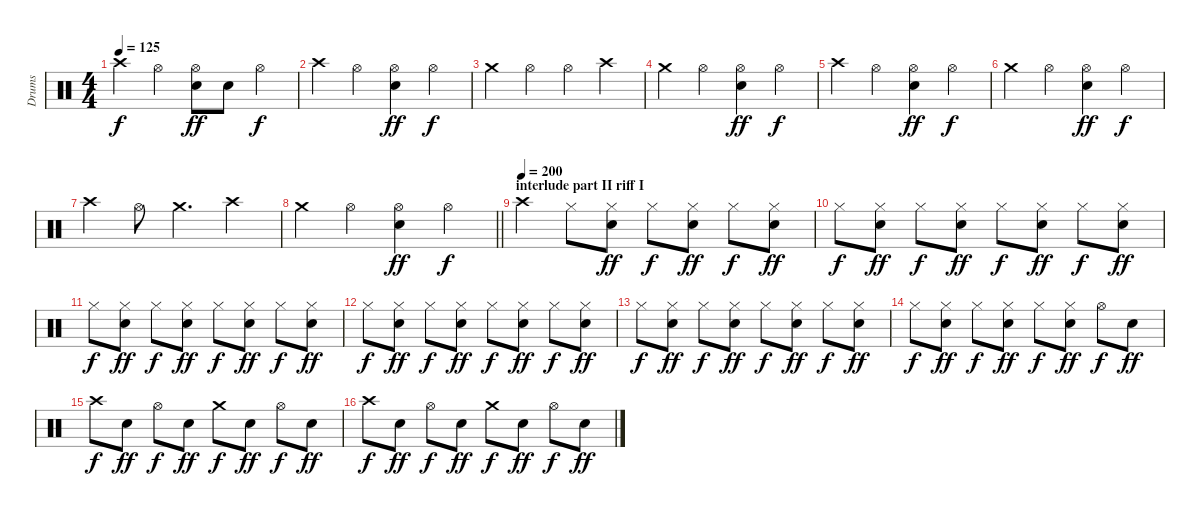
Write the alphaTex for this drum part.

\track ("Drums" "Drums") {instrument percussion}
\staff {score}
\articulation defaults
\ts (4 4)
\tempo 125
\clef neutral
\ks c "Crash high (hit)".4{dy f} "Hi-Hat (open)".4
("Hi-Hat (open)" "Snare (hit) 2").8{dy ff} "Snare (hit) 2".8 "Hi-Hat (open)".4{dy f} |
"Crash high (hit)".4 "Hi-Hat (open)".4 ("Hi-Hat (open)" "Snare (hit) 2").4{dy ff} "Hi-Hat (open)".4{dy f} |
"Crash medium (hit)".4 "Hi-Hat (open)".4 "Hi-Hat (open)".4 "Crash high (hit)".4 |
"Crash medium (hit)".4 "Hi-Hat (open)".4 ("Hi-Hat (open)" "Snare (hit) 2").4{dy ff} "Hi-Hat (open)".4{dy f} |
"Crash high (hit)".4 "Hi-Hat (open)".4 ("Hi-Hat (open)" "Snare (hit) 2").4{dy ff} "Hi-Hat (open)".4{dy f} |
"Crash medium (hit)".4 "Hi-Hat (open)".4 ("Hi-Hat (open)" "Snare (hit) 2").4{dy ff} "Hi-Hat (open)".4{dy f} |
"Crash high (hit)".4 "Hi-Hat (open)".8 "Crash medium (hit)".4{d} "Crash high (hit)".4 |
\barLineRight lightlight "Crash medium (hit)".4 "Hi-Hat (open)".4
("Hi-Hat (open)" "Snare (hit) 2").4{dy ff} "Hi-Hat (open)".4{dy f} |
\section ("" "interlude part II riff I")
\tempo (200)
"Crash high (hit)".4 "Hi-Hat (closed)".8 ("Hi-Hat (closed)" "Snare (hit) 2").8{dy ff} "Hi-Hat (closed)".8{dy f} ("Hi-Hat (closed)" "Snare (hit) 2").8{dy ff} "Hi-Hat (closed)".8{dy f} ("Hi-Hat (closed)" "Snare (hit) 2").8{dy ff} |
"Hi-Hat (closed)".8{dy f} ("Hi-Hat (closed)" "Snare (hit) 2").8{dy ff} "Hi-Hat (closed)".8{dy f} ("Hi-Hat (closed)" "Snare (hit) 2").8{dy ff} "Hi-Hat (closed)".8{dy f} ("Hi-Hat (closed)" "Snare (hit) 2").8{dy ff} "Hi-Hat (closed)".8{dy f} ("Hi-Hat (closed)" "Snare (hit) 2").8{dy ff} |
"Hi-Hat (closed)".8{dy f} ("Hi-Hat (closed)" "Snare (hit) 2").8{dy ff} "Hi-Hat (closed)".8{dy f} ("Hi-Hat (closed)" "Snare (hit) 2").8{dy ff} "Hi-Hat (closed)".8{dy f} ("Hi-Hat (closed)" "Snare (hit) 2").8{dy ff} "Hi-Hat (closed)".8{dy f} ("Hi-Hat (closed)" "Snare (hit) 2").8{dy ff} |
"Hi-Hat (closed)".8{dy f} ("Hi-Hat (closed)" "Snare (hit) 2").8{dy ff} "Hi-Hat (closed)".8{dy f} ("Hi-Hat (closed)" "Snare (hit) 2").8{dy ff} "Hi-Hat (closed)".8{dy f} ("Hi-Hat (closed)" "Snare (hit) 2").8{dy ff} "Hi-Hat (closed)".8{dy f} ("Hi-Hat (closed)" "Snare (hit) 2").8{dy ff} |
"Hi-Hat (closed)".8{dy f} ("Hi-Hat (closed)" "Snare (hit) 2").8{dy ff} "Hi-Hat (closed)".8{dy f} ("Hi-Hat (closed)" "Snare (hit) 2").8{dy ff} "Hi-Hat (closed)".8{dy f} ("Hi-Hat (closed)" "Snare (hit) 2").8{dy ff} "Hi-Hat (closed)".8{dy f} ("Hi-Hat (closed)" "Snare (hit) 2").8{dy ff} |
"Hi-Hat (closed)".8{dy f} ("Hi-Hat (closed)" "Snare (hit) 2").8{dy ff} "Hi-Hat (closed)".8{dy f} ("Hi-Hat (closed)" "Snare (hit) 2").8{dy ff} "Hi-Hat (closed)".8{dy f} ("Hi-Hat (closed)" "Snare (hit) 2").8{dy ff} "Hi-Hat (open)".8{dy f} "Snare (hit) 2".8{dy ff} |
"Crash high (hit)".8{dy f} "Snare (hit) 2".8{dy ff} "Hi-Hat (open)".8{dy f} "Snare (hit) 2".8{dy ff} "Crash medium (hit)".8{dy f} "Snare (hit) 2".8{dy ff} "Hi-Hat (open)".8{dy f} "Snare (hit) 2".8{dy ff} |
"Crash high (hit)".8{dy f} "Snare (hit) 2".8{dy ff} "Hi-Hat (open)".8{dy f} "Snare (hit) 2".8{dy ff} "Crash medium (hit)".8{dy f} "Snare (hit) 2".8{dy ff} "Hi-Hat (open)".8{dy f} "Snare (hit) 2".8{dy ff}
